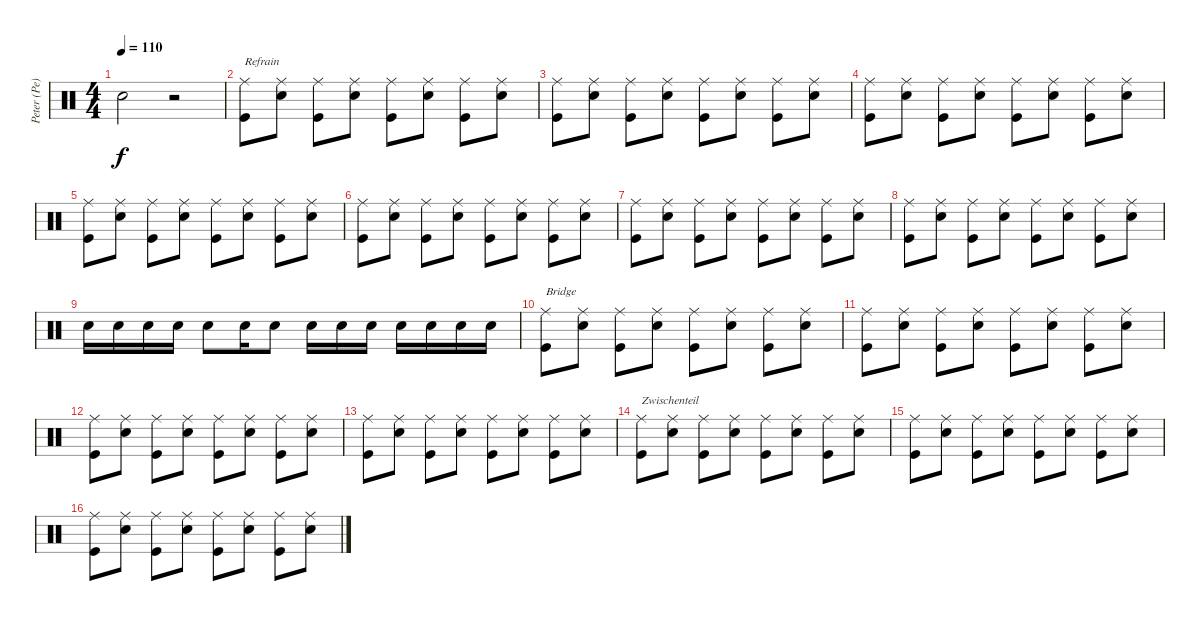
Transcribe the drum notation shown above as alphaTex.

\track ("Peter (Pe) Schorowsky" "Peter (Pe)") {instrument percussion}
\staff {score}
\articulation defaults
\ts (4 4)
\tempo 110
\clef neutral
\ks c "Snare (hit) 2".2{dy f}
r.2 |
("Ride (middle)" "Kick (hit)").8{txt "Refrain"} ("Ride (middle)" "Snare (hit) 2").8 ("Ride (middle)" "Kick (hit)").8 ("Ride (middle)" "Snare (hit) 2").8 ("Ride (middle)" "Kick (hit)").8 ("Ride (middle)" "Snare (hit) 2").8 ("Ride (middle)" "Kick (hit)").8 ("Ride (middle)" "Snare (hit) 2").8 |
("Ride (middle)" "Kick (hit)").8 ("Ride (middle)" "Snare (hit) 2").8 ("Ride (middle)" "Kick (hit)").8 ("Ride (middle)" "Snare (hit) 2").8 ("Ride (middle)" "Kick (hit)").8 ("Ride (middle)" "Snare (hit) 2").8 ("Ride (middle)" "Kick (hit)").8 ("Ride (middle)" "Snare (hit) 2").8 |
("Ride (middle)" "Kick (hit)").8 ("Ride (middle)" "Snare (hit) 2").8 ("Ride (middle)" "Kick (hit)").8 ("Ride (middle)" "Snare (hit) 2").8 ("Ride (middle)" "Kick (hit)").8 ("Ride (middle)" "Snare (hit) 2").8 ("Ride (middle)" "Kick (hit)").8 ("Ride (middle)" "Snare (hit) 2").8 |
("Ride (middle)" "Kick (hit)").8 ("Ride (middle)" "Snare (hit) 2").8 ("Ride (middle)" "Kick (hit)").8 ("Ride (middle)" "Snare (hit) 2").8 ("Ride (middle)" "Kick (hit)").8 ("Ride (middle)" "Snare (hit) 2").8 ("Ride (middle)" "Kick (hit)").8 ("Ride (middle)" "Snare (hit) 2").8 |
("Ride (middle)" "Kick (hit)").8 ("Ride (middle)" "Snare (hit) 2").8 ("Ride (middle)" "Kick (hit)").8 ("Ride (middle)" "Snare (hit) 2").8 ("Ride (middle)" "Kick (hit)").8 ("Ride (middle)" "Snare (hit) 2").8 ("Ride (middle)" "Kick (hit)").8 ("Ride (middle)" "Snare (hit) 2").8 |
("Ride (middle)" "Kick (hit)").8 ("Ride (middle)" "Snare (hit) 2").8 ("Ride (middle)" "Kick (hit)").8 ("Ride (middle)" "Snare (hit) 2").8 ("Ride (middle)" "Kick (hit)").8 ("Ride (middle)" "Snare (hit) 2").8 ("Ride (middle)" "Kick (hit)").8 ("Ride (middle)" "Snare (hit) 2").8 |
("Ride (middle)" "Kick (hit)").8 ("Ride (middle)" "Snare (hit) 2").8 ("Ride (middle)" "Kick (hit)").8 ("Ride (middle)" "Snare (hit) 2").8 ("Ride (middle)" "Kick (hit)").8 ("Ride (middle)" "Snare (hit) 2").8 ("Ride (middle)" "Kick (hit)").8 ("Ride (middle)" "Snare (hit) 2").8 |
"Snare (hit) 2".16 "Snare (hit) 2".16 "Snare (hit) 2".16 "Snare (hit) 2".16 "Snare (hit) 2".8 "Snare (hit) 2".16 "Snare (hit) 2".8 "Snare (hit) 2".16 "Snare (hit) 2".16 "Snare (hit) 2".16 "Snare (hit) 2".16 "Snare (hit) 2".16 "Snare (hit) 2".16 "Snare (hit) 2".16 |
("Ride (middle)" "Kick (hit)").8{txt "Bridge"} ("Ride (middle)" "Snare (hit) 2").8 ("Ride (middle)" "Kick (hit)").8 ("Ride (middle)" "Snare (hit) 2").8 ("Ride (middle)" "Kick (hit)").8 ("Ride (middle)" "Snare (hit) 2").8 ("Ride (middle)" "Kick (hit)").8 ("Ride (middle)" "Snare (hit) 2").8 |
("Ride (middle)" "Kick (hit)").8 ("Ride (middle)" "Snare (hit) 2").8 ("Ride (middle)" "Kick (hit)").8 ("Ride (middle)" "Snare (hit) 2").8 ("Ride (middle)" "Kick (hit)").8 ("Ride (middle)" "Snare (hit) 2").8 ("Ride (middle)" "Kick (hit)").8 ("Ride (middle)" "Snare (hit) 2").8 |
("Ride (middle)" "Kick (hit)").8 ("Ride (middle)" "Snare (hit) 2").8 ("Ride (middle)" "Kick (hit)").8 ("Ride (middle)" "Snare (hit) 2").8 ("Ride (middle)" "Kick (hit)").8 ("Ride (middle)" "Snare (hit) 2").8 ("Ride (middle)" "Kick (hit)").8 ("Ride (middle)" "Snare (hit) 2").8 |
("Ride (middle)" "Kick (hit)").8 ("Ride (middle)" "Snare (hit) 2").8 ("Ride (middle)" "Kick (hit)").8 ("Ride (middle)" "Snare (hit) 2").8 ("Ride (middle)" "Kick (hit)").8 ("Ride (middle)" "Snare (hit) 2").8 ("Ride (middle)" "Kick (hit)").8 ("Ride (middle)" "Snare (hit) 2").8 |
("Ride (middle)" "Kick (hit)").8{txt "Zwischenteil"} ("Ride (middle)" "Snare (hit) 2").8 ("Ride (middle)" "Kick (hit)").8 ("Ride (middle)" "Snare (hit) 2").8 ("Ride (middle)" "Kick (hit)").8 ("Ride (middle)" "Snare (hit) 2").8 ("Ride (middle)" "Kick (hit)").8 ("Ride (middle)" "Snare (hit) 2").8 |
("Ride (middle)" "Kick (hit)").8 ("Ride (middle)" "Snare (hit) 2").8 ("Ride (middle)" "Kick (hit)").8 ("Ride (middle)" "Snare (hit) 2").8 ("Ride (middle)" "Kick (hit)").8 ("Ride (middle)" "Snare (hit) 2").8 ("Ride (middle)" "Kick (hit)").8 ("Ride (middle)" "Snare (hit) 2").8 |
("Ride (middle)" "Kick (hit)").8 ("Ride (middle)" "Snare (hit) 2").8 ("Ride (middle)" "Kick (hit)").8 ("Ride (middle)" "Snare (hit) 2").8 ("Ride (middle)" "Kick (hit)").8 ("Ride (middle)" "Snare (hit) 2").8 ("Ride (middle)" "Kick (hit)").8 ("Ride (middle)" "Snare (hit) 2").8
